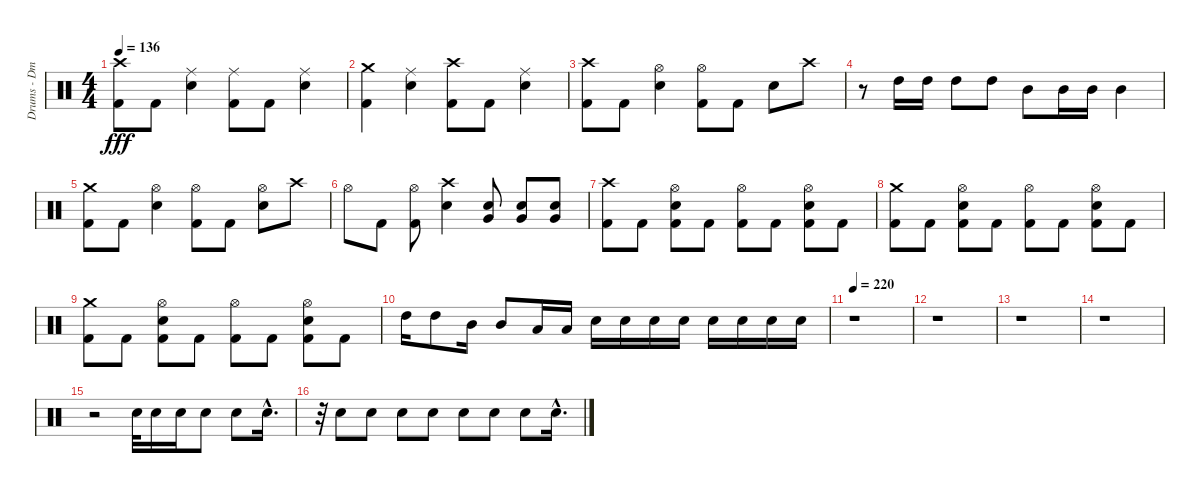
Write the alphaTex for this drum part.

\track ("Drums - Dmitriy Krivenkov" "Drums - Dm") {instrument percussion}
\staff {score}
\articulation defaults
\ts (4 4)
\tempo 136
\clef neutral
\ks c
("Crash high (hit)" "Kick (hit) 2").8{dy fff} "Kick (hit) 2".8 ("Ride (middle)" "Electric Snare (hit)").4 ("Ride (middle)" "Kick (hit) 2").8 "Kick (hit) 2".8 ("Ride (middle)" "Electric Snare (hit)").4 |
("Kick (hit) 2" "Crash medium (hit)").4 ("Electric Snare (hit)" "Ride (middle)").4 ("Kick (hit) 2" "Crash high (hit)").8 "Kick (hit) 2".8 ("Electric Snare (hit)" "Ride (middle)").4 |
("Crash high (hit)" "Kick (hit) 2").8 "Kick (hit) 2".8 ("Hi-Hat (open)" "Electric Snare (hit)").4 ("Hi-Hat (open)" "Kick (hit) 2").8 "Kick (hit) 2".8 "Electric Snare (hit)".8 "Crash high (hit)".8 |
r.8 "High Tom (hit)".16 "High Tom (hit)".16 "High Tom (hit)".8 "High Tom (hit)".8 "Mid Tom (hit)".8 "Mid Tom (hit)".16 "Mid Tom (hit)".16 "Mid Tom (hit)".4 |
("Crash medium (hit)" "Kick (hit) 2").8 "Kick (hit) 2".8 ("Hi-Hat (open)" "Electric Snare (hit)").4 ("Hi-Hat (open)" "Kick (hit) 2").8 "Kick (hit) 2".8 ("Hi-Hat (open)" "Electric Snare (hit)").8 "Crash high (hit)".8 |
"Hi-Hat (open)".8 "Kick (hit) 2".8 ("Hi-Hat (open)" "Kick (hit) 2").8 ("Crash high (hit)" "Electric Snare (hit)").4 ("Very Low Tom (hit)" "Electric Snare (hit)").8 ("Very Low Tom (hit)" "Electric Snare (hit)").8 ("Very Low Tom (hit)" "Electric Snare (hit)").8 |
("Crash high (hit)" "Kick (hit) 2").8 "Kick (hit) 2".8 ("Hi-Hat (open)" "Electric Snare (hit)" "Kick (hit) 2").8 "Kick (hit) 2".8 ("Hi-Hat (open)" "Kick (hit) 2").8 "Kick (hit) 2".8 ("Hi-Hat (open)" "Electric Snare (hit)" "Kick (hit) 2").8 "Kick (hit) 2".8 |
("Crash medium (hit)" "Kick (hit) 2").8 "Kick (hit) 2".8 ("Hi-Hat (open)" "Electric Snare (hit)" "Kick (hit) 2").8 "Kick (hit) 2".8 ("Hi-Hat (open)" "Kick (hit) 2").8 "Kick (hit) 2".8 ("Hi-Hat (open)" "Electric Snare (hit)" "Kick (hit) 2").8 "Kick (hit) 2".8 |
("Crash medium (hit)" "Kick (hit) 2").8 "Kick (hit) 2".8 ("Hi-Hat (open)" "Electric Snare (hit)" "Kick (hit) 2").8 "Kick (hit) 2".8 ("Hi-Hat (open)" "Kick (hit) 2").8 "Kick (hit) 2".8 ("Hi-Hat (open)" "Electric Snare (hit)" "Kick (hit) 2").8 "Kick (hit) 2".8 |
"High Tom (hit)".16 "High Tom (hit)".8 "Mid Tom (hit)".16 "Mid Tom (hit)".8 "Low Tom (hit)".16 "Low Tom (hit)".16 "Electric Snare (hit)".16 "Electric Snare (hit)".16 "Electric Snare (hit)".16 "Electric Snare (hit)".16 "Electric Snare (hit)".16 "Electric Snare (hit)".16 "Electric Snare (hit)".16 "Electric Snare (hit)".16 |
\tempo 220
r.1 |
r.1 |
r.1 |
r.1 |
r.2 "Electric Snare (hit)".32 "Electric Snare (hit)".16 "Electric Snare (hit)".16 "Electric Snare (hit)".8 "Electric Snare (hit)".8 "Electric Snare (hit)"{hac}.16{d} |
r.32 "Electric Snare (hit)".8 "Electric Snare (hit)".8 "Electric Snare (hit)".8 "Electric Snare (hit)".8 "Electric Snare (hit)".8 "Electric Snare (hit)".8 "Electric Snare (hit)".8 "Electric Snare (hit)"{hac}.16{d}
